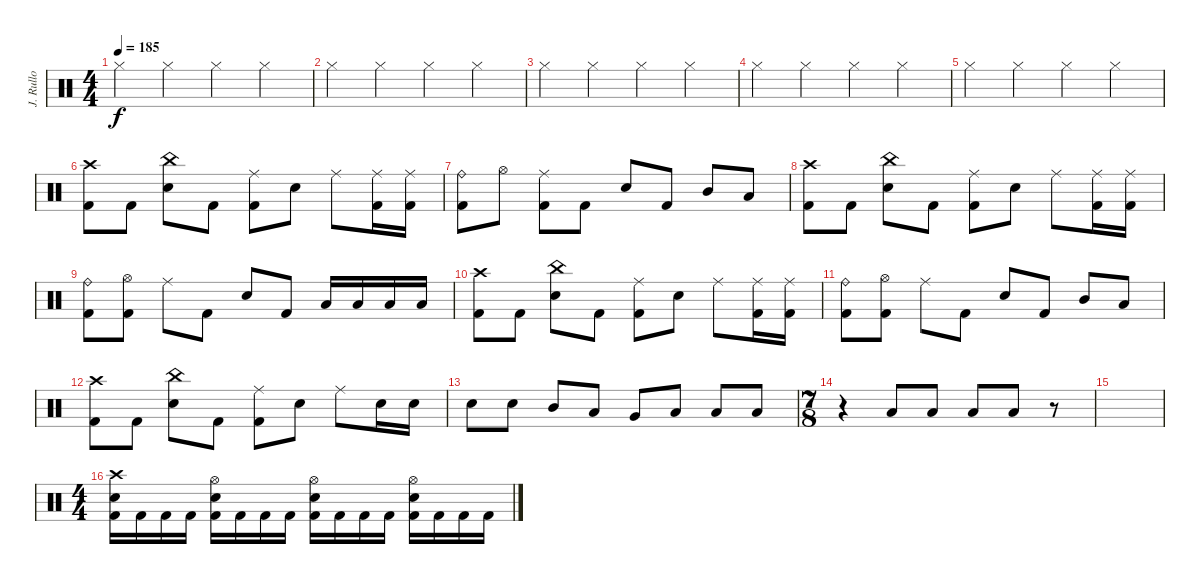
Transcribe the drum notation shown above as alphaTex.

\track ("J. Rullo" "J. Rullo") {instrument percussion}
\staff {score}
\articulation defaults
\ts (4 4)
\tempo 185
\clef neutral
\ks c "Hi-Hat (closed)".4{dy f} "Hi-Hat (closed)".4 "Hi-Hat (closed)".4 "Hi-Hat (closed)".4
|
"Hi-Hat (closed)".4 "Hi-Hat (closed)".4 "Hi-Hat (closed)".4 "Hi-Hat (closed)".4 |
"Hi-Hat (closed)".4 "Hi-Hat (closed)".4 "Hi-Hat (closed)".4 "Hi-Hat (closed)".4 |
"Hi-Hat (closed)".4 "Hi-Hat (closed)".4 "Hi-Hat (closed)".4 "Hi-Hat (closed)".4 |
"Hi-Hat (closed)".4 "Hi-Hat (closed)".4 "Hi-Hat (closed)".4 "Hi-Hat (closed)".4 |
("Crash high (hit)" "Kick (hit) 2").8 "Kick (hit) 2".8 ("China (hit)" "Snare (hit) 2").8 "Kick (hit) 2".8 ("Ride (middle)" "Kick (hit) 2").8 "Snare (hit) 2".8 "Ride (middle)".8 ("Ride (middle)" "Kick (hit) 2").16 ("Ride (middle)" "Kick (hit) 2").16 |
("Ride (bell)" "Kick (hit) 2").8 "Hi-Hat (open)".8 ("Ride (middle)" "Kick (hit) 2").8 "Kick (hit) 2".8 "Snare (hit) 2".8 "Kick (hit) 2".8 "Mid Tom (hit)".8 "Low Tom (hit)".8 |
("Crash high (hit)" "Kick (hit) 2").8 "Kick (hit) 2".8 ("China (hit)" "Snare (hit) 2").8 "Kick (hit) 2".8 ("Ride (middle)" "Kick (hit) 2").8 "Snare (hit) 2".8 "Ride (middle)".8 ("Ride (middle)" "Kick (hit) 2").16 ("Ride (middle)" "Kick (hit) 2").16 |
("Ride (bell)" "Kick (hit) 2").8 ("Hi-Hat (open)" "Kick (hit) 2").8 "Ride (middle)".8 "Kick (hit) 2".8 "Snare (hit) 2".8 "Kick (hit) 2".8 "Low Tom (hit)".16 "Low Tom (hit)".16 "Low Tom (hit)".16 "Low Tom (hit)".16 |
("Crash high (hit)" "Kick (hit) 2").8 "Kick (hit) 2".8 ("China (hit)" "Snare (hit) 2").8 "Kick (hit) 2".8 ("Ride (middle)" "Kick (hit) 2").8 "Snare (hit) 2".8 "Ride (middle)".8 ("Ride (middle)" "Kick (hit) 2").16 ("Ride (middle)" "Kick (hit) 2").16 |
("Ride (bell)" "Kick (hit) 2").8 ("Hi-Hat (open)" "Kick (hit) 2").8 "Ride (middle)".8 "Kick (hit) 2".8 "Snare (hit) 2".8 "Kick (hit) 2".8 "Mid Tom (hit)".8 "Low Tom (hit)".8 |
("Crash high (hit)" "Kick (hit) 2").8 "Kick (hit) 2".8 ("China (hit)" "Snare (hit) 2").8 "Kick (hit) 2".8 ("Ride (middle)" "Kick (hit) 2").8 "Snare (hit) 2".8 "Ride (middle)".8 "Snare (hit) 2".16 "Snare (hit) 2".16 |
"Snare (hit) 2".8 "Snare (hit) 2".8 "Mid Tom (hit)".8 "Low Tom (hit)".8 "Very Low Tom (hit)".8 "Low Floor Tom (hit)".8 "Low Floor Tom (hit)".8 "Low Floor Tom (hit)".8 |
\ts (7 8)
r.4 "Low Floor Tom (hit)".8 "Low Floor Tom (hit)".8 "Low Floor Tom (hit)".8 "Low Floor Tom (hit)".8 r.8 |
|
\ts (4 4)
("Crash high (hit)" "Snare (hit) 2" "Kick (hit) 2").16 "Kick (hit) 2".16 "Kick (hit) 2".16 "Kick (hit) 2".16 ("Hi-Hat (open)" "Snare (hit) 2" "Kick (hit) 2").16 "Kick (hit) 2".16 "Kick (hit) 2".16 "Kick (hit) 2".16 ("Hi-Hat (open)" "Snare (hit) 2" "Kick (hit) 2").16 "Kick (hit) 2".16 "Kick (hit) 2".16 "Kick (hit) 2".16 ("Hi-Hat (open)" "Snare (hit) 2" "Kick (hit) 2").16 "Kick (hit) 2".16 "Kick (hit) 2".16 "Kick (hit) 2".16
